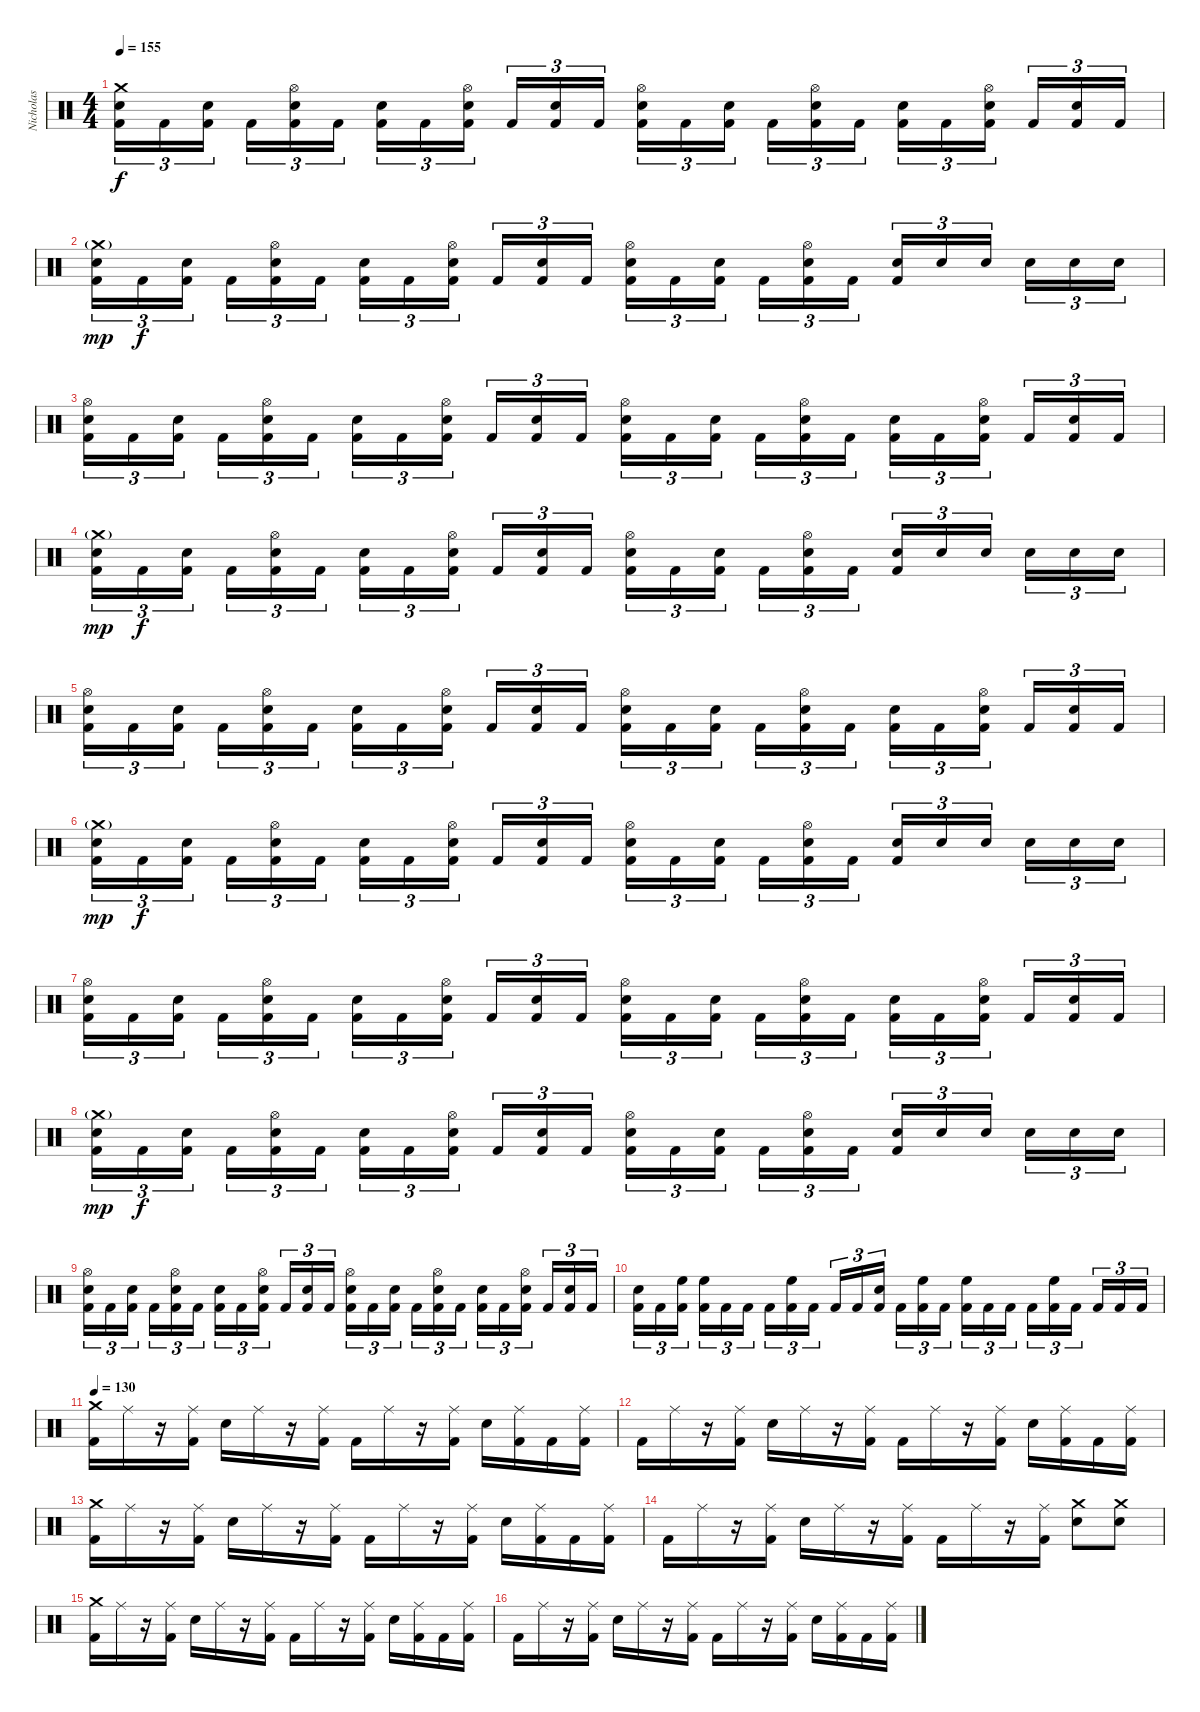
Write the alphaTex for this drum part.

\track ("Nicholas" "Nicholas") {instrument percussion}
\staff {score}
\articulation defaults
\ts (4 4)
\tempo 155
\clef neutral
\ks c
("Crash medium (hit)" "Snare (hit) 2" "Kick (hit) 2").16{tu (3 2) dy f} "Kick (hit) 2".16{tu (3 2)} ("Snare (hit) 2" "Kick (hit) 2").16{tu (3 2) beam splitsecondary} "Kick (hit) 2".16{tu (3 2)} ("Hi-Hat (open)" "Snare (hit) 2" "Kick (hit) 2").16{tu (3 2)} "Kick (hit) 2".16{tu (3 2)} ("Snare (hit) 2" "Kick (hit) 2").16{tu (3 2)} "Kick (hit) 2".16{tu (3 2)} ("Hi-Hat (open)" "Snare (hit) 2" "Kick (hit) 2").16{tu (3 2) beam splitsecondary} "Kick (hit) 2".16{tu (3 2)} ("Snare (hit) 2" "Kick (hit) 2").16{tu (3 2)} "Kick (hit) 2".16{tu (3 2)} ("Hi-Hat (open)" "Snare (hit) 2" "Kick (hit) 2").16{tu (3 2)} "Kick (hit) 2".16{tu (3 2)} ("Snare (hit) 2" "Kick (hit) 2").16{tu (3 2) beam splitsecondary} "Kick (hit) 2".16{tu (3 2)} ("Hi-Hat (open)" "Snare (hit) 2" "Kick (hit) 2").16{tu (3 2)} "Kick (hit) 2".16{tu (3 2)} ("Snare (hit) 2" "Kick (hit) 2").16{tu (3 2)} "Kick (hit) 2".16{tu (3 2)} ("Hi-Hat (open)" "Snare (hit) 2" "Kick (hit) 2").16{tu (3 2) beam splitsecondary} "Kick (hit) 2".16{tu (3 2)} ("Snare (hit) 2" "Kick (hit) 2").16{tu (3 2)} "Kick (hit) 2".16{tu (3 2)} |
("Crash medium (hit)"{g} "Snare (hit) 2" "Kick (hit) 2").16{tu (3 2) dy mp} "Kick (hit) 2".16{tu (3 2) dy f} ("Snare (hit) 2" "Kick (hit) 2").16{tu (3 2) beam splitsecondary} "Kick (hit) 2".16{tu (3 2)} ("Hi-Hat (open)" "Snare (hit) 2" "Kick (hit) 2").16{tu (3 2)} "Kick (hit) 2".16{tu (3 2)} ("Snare (hit) 2" "Kick (hit) 2").16{tu (3 2)} "Kick (hit) 2".16{tu (3 2)} ("Hi-Hat (open)" "Snare (hit) 2" "Kick (hit) 2").16{tu (3 2) beam splitsecondary} "Kick (hit) 2".16{tu (3 2)} ("Snare (hit) 2" "Kick (hit) 2").16{tu (3 2)} "Kick (hit) 2".16{tu (3 2)} ("Hi-Hat (open)" "Snare (hit) 2" "Kick (hit) 2").16{tu (3 2)} "Kick (hit) 2".16{tu (3 2)} ("Snare (hit) 2" "Kick (hit) 2").16{tu (3 2) beam splitsecondary} "Kick (hit) 2".16{tu (3 2)} ("Hi-Hat (open)" "Snare (hit) 2" "Kick (hit) 2").16{tu (3 2)} "Kick (hit) 2".16{tu (3 2)} ("Snare (hit) 2" "Kick (hit) 2").16{tu (3 2)} "Snare (hit) 2".16{tu (3 2)} "Snare (hit) 2".16{tu (3 2) beam splitsecondary} "Snare (hit) 2".16{tu (3 2)} "Snare (hit) 2".16{tu (3 2)} "Snare (hit) 2".16{tu (3 2)} |
("Hi-Hat (open)" "Snare (hit) 2" "Kick (hit) 2").16{tu (3 2)} "Kick (hit) 2".16{tu (3 2)} ("Snare (hit) 2" "Kick (hit) 2").16{tu (3 2) beam splitsecondary} "Kick (hit) 2".16{tu (3 2)} ("Hi-Hat (open)" "Snare (hit) 2" "Kick (hit) 2").16{tu (3 2)} "Kick (hit) 2".16{tu (3 2)} ("Snare (hit) 2" "Kick (hit) 2").16{tu (3 2)} "Kick (hit) 2".16{tu (3 2)} ("Hi-Hat (open)" "Snare (hit) 2" "Kick (hit) 2").16{tu (3 2) beam splitsecondary} "Kick (hit) 2".16{tu (3 2)} ("Snare (hit) 2" "Kick (hit) 2").16{tu (3 2)} "Kick (hit) 2".16{tu (3 2)} ("Hi-Hat (open)" "Snare (hit) 2" "Kick (hit) 2").16{tu (3 2)} "Kick (hit) 2".16{tu (3 2)} ("Snare (hit) 2" "Kick (hit) 2").16{tu (3 2) beam splitsecondary} "Kick (hit) 2".16{tu (3 2)} ("Hi-Hat (open)" "Snare (hit) 2" "Kick (hit) 2").16{tu (3 2)} "Kick (hit) 2".16{tu (3 2)} ("Snare (hit) 2" "Kick (hit) 2").16{tu (3 2)} "Kick (hit) 2".16{tu (3 2)} ("Hi-Hat (open)" "Snare (hit) 2" "Kick (hit) 2").16{tu (3 2) beam splitsecondary} "Kick (hit) 2".16{tu (3 2)} ("Snare (hit) 2" "Kick (hit) 2").16{tu (3 2)} "Kick (hit) 2".16{tu (3 2)} |
("Crash medium (hit)"{g} "Snare (hit) 2" "Kick (hit) 2").16{tu (3 2) dy mp} "Kick (hit) 2".16{tu (3 2) dy f} ("Snare (hit) 2" "Kick (hit) 2").16{tu (3 2) beam splitsecondary} "Kick (hit) 2".16{tu (3 2)} ("Hi-Hat (open)" "Snare (hit) 2" "Kick (hit) 2").16{tu (3 2)} "Kick (hit) 2".16{tu (3 2)} ("Snare (hit) 2" "Kick (hit) 2").16{tu (3 2)} "Kick (hit) 2".16{tu (3 2)} ("Hi-Hat (open)" "Snare (hit) 2" "Kick (hit) 2").16{tu (3 2) beam splitsecondary} "Kick (hit) 2".16{tu (3 2)} ("Snare (hit) 2" "Kick (hit) 2").16{tu (3 2)} "Kick (hit) 2".16{tu (3 2)} ("Hi-Hat (open)" "Snare (hit) 2" "Kick (hit) 2").16{tu (3 2)} "Kick (hit) 2".16{tu (3 2)} ("Snare (hit) 2" "Kick (hit) 2").16{tu (3 2) beam splitsecondary} "Kick (hit) 2".16{tu (3 2)} ("Hi-Hat (open)" "Snare (hit) 2" "Kick (hit) 2").16{tu (3 2)} "Kick (hit) 2".16{tu (3 2)} ("Snare (hit) 2" "Kick (hit) 2").16{tu (3 2)} "Snare (hit) 2".16{tu (3 2)} "Snare (hit) 2".16{tu (3 2) beam splitsecondary} "Snare (hit) 2".16{tu (3 2)} "Snare (hit) 2".16{tu (3 2)} "Snare (hit) 2".16{tu (3 2)} |
("Hi-Hat (open)" "Snare (hit) 2" "Kick (hit) 2").16{tu (3 2)} "Kick (hit) 2".16{tu (3 2)} ("Snare (hit) 2" "Kick (hit) 2").16{tu (3 2) beam splitsecondary} "Kick (hit) 2".16{tu (3 2)} ("Hi-Hat (open)" "Snare (hit) 2" "Kick (hit) 2").16{tu (3 2)} "Kick (hit) 2".16{tu (3 2)} ("Snare (hit) 2" "Kick (hit) 2").16{tu (3 2)} "Kick (hit) 2".16{tu (3 2)} ("Hi-Hat (open)" "Snare (hit) 2" "Kick (hit) 2").16{tu (3 2) beam splitsecondary} "Kick (hit) 2".16{tu (3 2)} ("Snare (hit) 2" "Kick (hit) 2").16{tu (3 2)} "Kick (hit) 2".16{tu (3 2)} ("Hi-Hat (open)" "Snare (hit) 2" "Kick (hit) 2").16{tu (3 2)} "Kick (hit) 2".16{tu (3 2)} ("Snare (hit) 2" "Kick (hit) 2").16{tu (3 2) beam splitsecondary} "Kick (hit) 2".16{tu (3 2)} ("Hi-Hat (open)" "Snare (hit) 2" "Kick (hit) 2").16{tu (3 2)} "Kick (hit) 2".16{tu (3 2)} ("Snare (hit) 2" "Kick (hit) 2").16{tu (3 2)} "Kick (hit) 2".16{tu (3 2)} ("Hi-Hat (open)" "Snare (hit) 2" "Kick (hit) 2").16{tu (3 2) beam splitsecondary} "Kick (hit) 2".16{tu (3 2)} ("Snare (hit) 2" "Kick (hit) 2").16{tu (3 2)} "Kick (hit) 2".16{tu (3 2)} |
("Crash medium (hit)"{g} "Snare (hit) 2" "Kick (hit) 2").16{tu (3 2) dy mp} "Kick (hit) 2".16{tu (3 2) dy f} ("Snare (hit) 2" "Kick (hit) 2").16{tu (3 2) beam splitsecondary} "Kick (hit) 2".16{tu (3 2)} ("Hi-Hat (open)" "Snare (hit) 2" "Kick (hit) 2").16{tu (3 2)} "Kick (hit) 2".16{tu (3 2)} ("Snare (hit) 2" "Kick (hit) 2").16{tu (3 2)} "Kick (hit) 2".16{tu (3 2)} ("Hi-Hat (open)" "Snare (hit) 2" "Kick (hit) 2").16{tu (3 2) beam splitsecondary} "Kick (hit) 2".16{tu (3 2)} ("Snare (hit) 2" "Kick (hit) 2").16{tu (3 2)} "Kick (hit) 2".16{tu (3 2)} ("Hi-Hat (open)" "Snare (hit) 2" "Kick (hit) 2").16{tu (3 2)} "Kick (hit) 2".16{tu (3 2)} ("Snare (hit) 2" "Kick (hit) 2").16{tu (3 2) beam splitsecondary} "Kick (hit) 2".16{tu (3 2)} ("Hi-Hat (open)" "Snare (hit) 2" "Kick (hit) 2").16{tu (3 2)} "Kick (hit) 2".16{tu (3 2)} ("Snare (hit) 2" "Kick (hit) 2").16{tu (3 2)} "Snare (hit) 2".16{tu (3 2)} "Snare (hit) 2".16{tu (3 2) beam splitsecondary} "Snare (hit) 2".16{tu (3 2)} "Snare (hit) 2".16{tu (3 2)} "Snare (hit) 2".16{tu (3 2)} |
("Hi-Hat (open)" "Snare (hit) 2" "Kick (hit) 2").16{tu (3 2)} "Kick (hit) 2".16{tu (3 2)} ("Snare (hit) 2" "Kick (hit) 2").16{tu (3 2) beam splitsecondary} "Kick (hit) 2".16{tu (3 2)} ("Hi-Hat (open)" "Snare (hit) 2" "Kick (hit) 2").16{tu (3 2)} "Kick (hit) 2".16{tu (3 2)} ("Snare (hit) 2" "Kick (hit) 2").16{tu (3 2)} "Kick (hit) 2".16{tu (3 2)} ("Hi-Hat (open)" "Snare (hit) 2" "Kick (hit) 2").16{tu (3 2) beam splitsecondary} "Kick (hit) 2".16{tu (3 2)} ("Snare (hit) 2" "Kick (hit) 2").16{tu (3 2)} "Kick (hit) 2".16{tu (3 2)} ("Hi-Hat (open)" "Snare (hit) 2" "Kick (hit) 2").16{tu (3 2)} "Kick (hit) 2".16{tu (3 2)} ("Snare (hit) 2" "Kick (hit) 2").16{tu (3 2) beam splitsecondary} "Kick (hit) 2".16{tu (3 2)} ("Hi-Hat (open)" "Snare (hit) 2" "Kick (hit) 2").16{tu (3 2)} "Kick (hit) 2".16{tu (3 2)} ("Snare (hit) 2" "Kick (hit) 2").16{tu (3 2)} "Kick (hit) 2".16{tu (3 2)} ("Hi-Hat (open)" "Snare (hit) 2" "Kick (hit) 2").16{tu (3 2) beam splitsecondary} "Kick (hit) 2".16{tu (3 2)} ("Snare (hit) 2" "Kick (hit) 2").16{tu (3 2)} "Kick (hit) 2".16{tu (3 2)} |
("Crash medium (hit)"{g} "Snare (hit) 2" "Kick (hit) 2").16{tu (3 2) dy mp} "Kick (hit) 2".16{tu (3 2) dy f} ("Snare (hit) 2" "Kick (hit) 2").16{tu (3 2) beam splitsecondary} "Kick (hit) 2".16{tu (3 2)} ("Hi-Hat (open)" "Snare (hit) 2" "Kick (hit) 2").16{tu (3 2)} "Kick (hit) 2".16{tu (3 2)} ("Snare (hit) 2" "Kick (hit) 2").16{tu (3 2)} "Kick (hit) 2".16{tu (3 2)} ("Hi-Hat (open)" "Snare (hit) 2" "Kick (hit) 2").16{tu (3 2) beam splitsecondary} "Kick (hit) 2".16{tu (3 2)} ("Snare (hit) 2" "Kick (hit) 2").16{tu (3 2)} "Kick (hit) 2".16{tu (3 2)} ("Hi-Hat (open)" "Snare (hit) 2" "Kick (hit) 2").16{tu (3 2)} "Kick (hit) 2".16{tu (3 2)} ("Snare (hit) 2" "Kick (hit) 2").16{tu (3 2) beam splitsecondary} "Kick (hit) 2".16{tu (3 2)} ("Hi-Hat (open)" "Snare (hit) 2" "Kick (hit) 2").16{tu (3 2)} "Kick (hit) 2".16{tu (3 2)} ("Snare (hit) 2" "Kick (hit) 2").16{tu (3 2)} "Snare (hit) 2".16{tu (3 2)} "Snare (hit) 2".16{tu (3 2) beam splitsecondary} "Snare (hit) 2".16{tu (3 2)} "Snare (hit) 2".16{tu (3 2)} "Snare (hit) 2".16{tu (3 2)} |
("Hi-Hat (open)" "Snare (hit) 2" "Kick (hit) 2").16{tu (3 2)} "Kick (hit) 2".16{tu (3 2)} ("Snare (hit) 2" "Kick (hit) 2").16{tu (3 2) beam splitsecondary} "Kick (hit) 2".16{tu (3 2)} ("Hi-Hat (open)" "Snare (hit) 2" "Kick (hit) 2").16{tu (3 2)} "Kick (hit) 2".16{tu (3 2)} ("Snare (hit) 2" "Kick (hit) 2").16{tu (3 2)} "Kick (hit) 2".16{tu (3 2)} ("Hi-Hat (open)" "Snare (hit) 2" "Kick (hit) 2").16{tu (3 2) beam splitsecondary} "Kick (hit) 2".16{tu (3 2)} ("Snare (hit) 2" "Kick (hit) 2").16{tu (3 2)} "Kick (hit) 2".16{tu (3 2)} ("Hi-Hat (open)" "Snare (hit) 2" "Kick (hit) 2").16{tu (3 2)} "Kick (hit) 2".16{tu (3 2)} ("Snare (hit) 2" "Kick (hit) 2").16{tu (3 2) beam splitsecondary} "Kick (hit) 2".16{tu (3 2)} ("Hi-Hat (open)" "Snare (hit) 2" "Kick (hit) 2").16{tu (3 2)} "Kick (hit) 2".16{tu (3 2)} ("Snare (hit) 2" "Kick (hit) 2").16{tu (3 2)} "Kick (hit) 2".16{tu (3 2)} ("Hi-Hat (open)" "Snare (hit) 2" "Kick (hit) 2").16{tu (3 2) beam splitsecondary} "Kick (hit) 2".16{tu (3 2)} ("Snare (hit) 2" "Kick (hit) 2").16{tu (3 2)} "Kick (hit) 2".16{tu (3 2)} |
("Snare (hit) 2" "Kick (hit) 2").16{tu (3 2)} "Kick (hit) 2".16{tu (3 2)} ("High Floor Tom (hit)" "Kick (hit) 2").16{tu (3 2) beam splitsecondary} ("High Floor Tom (hit)" "Kick (hit) 2").16{tu (3 2)} "Kick (hit) 2".16{tu (3 2)} "Kick (hit) 2".16{tu (3 2)} "Kick (hit) 2".16{tu (3 2)} ("High Floor Tom (hit)" "Kick (hit) 2").16{tu (3 2)} "Kick (hit) 2".16{tu (3 2) beam splitsecondary} "Kick (hit) 2".16{tu (3 2)} "Kick (hit) 2".16{tu (3 2)} ("Snare (hit) 2" "Kick (hit) 2").16{tu (3 2)} "Kick (hit) 2".16{tu (3 2)} ("High Floor Tom (hit)" "Kick (hit) 2").16{tu (3 2)} "Kick (hit) 2".16{tu (3 2) beam splitsecondary} ("High Floor Tom (hit)" "Kick (hit) 2").16{tu (3 2)} "Kick (hit) 2".16{tu (3 2)} "Kick (hit) 2".16{tu (3 2)} "Kick (hit) 2".16{tu (3 2)} ("High Floor Tom (hit)" "Kick (hit) 2").16{tu (3 2)} "Kick (hit) 2".16{tu (3 2) beam splitsecondary} "Kick (hit) 2".16{tu (3 2)} "Kick (hit) 2".16{tu (3 2)} "Kick (hit) 2".16{tu (3 2)} |
\tempo 130
("Crash medium (hit)" "Kick (hit) 2").16 "Ride (middle)".16 r.16 ("Ride (middle)" "Kick (hit) 2").16 "Snare (hit) 2".16 "Ride (middle)".16 r.16 ("Ride (middle)" "Kick (hit) 2").16 "Kick (hit) 2".16 "Ride (middle)".16 r.16 ("Ride (middle)" "Kick (hit) 2").16 "Snare (hit) 2".16 ("Ride (middle)" "Kick (hit) 2").16 "Kick (hit) 2".16 ("Ride (middle)" "Kick (hit) 2").16 |
"Kick (hit) 2".16 "Ride (middle)".16 r.16 ("Ride (middle)" "Kick (hit) 2").16 "Snare (hit) 2".16 "Ride (middle)".16 r.16 ("Ride (middle)" "Kick (hit) 2").16 "Kick (hit) 2".16 "Ride (middle)".16 r.16 ("Ride (middle)" "Kick (hit) 2").16 "Snare (hit) 2".16 ("Ride (middle)" "Kick (hit) 2").16 "Kick (hit) 2".16 ("Ride (middle)" "Kick (hit) 2").16 |
("Crash medium (hit)" "Kick (hit) 2").16 "Ride (middle)".16 r.16 ("Ride (middle)" "Kick (hit) 2").16 "Snare (hit) 2".16 "Ride (middle)".16 r.16 ("Ride (middle)" "Kick (hit) 2").16 "Kick (hit) 2".16 "Ride (middle)".16 r.16 ("Ride (middle)" "Kick (hit) 2").16 "Snare (hit) 2".16 ("Ride (middle)" "Kick (hit) 2").16 "Kick (hit) 2".16 ("Ride (middle)" "Kick (hit) 2").16 |
"Kick (hit) 2".16 "Ride (middle)".16 r.16 ("Ride (middle)" "Kick (hit) 2").16 "Snare (hit) 2".16 "Ride (middle)".16 r.16 ("Ride (middle)" "Kick (hit) 2").16 "Kick (hit) 2".16 "Ride (middle)".16 r.16 ("Ride (middle)" "Kick (hit) 2").16 ("Crash medium (hit)" "Snare (hit) 2").8 ("Crash medium (hit)" "Snare (hit) 2").8 |
("Crash medium (hit)" "Kick (hit) 2").16 "Ride (middle)".16 r.16 ("Ride (middle)" "Kick (hit) 2").16 "Snare (hit) 2".16 "Ride (middle)".16 r.16 ("Ride (middle)" "Kick (hit) 2").16 "Kick (hit) 2".16 "Ride (middle)".16 r.16 ("Ride (middle)" "Kick (hit) 2").16 "Snare (hit) 2".16 ("Ride (middle)" "Kick (hit) 2").16 "Kick (hit) 2".16 ("Ride (middle)" "Kick (hit) 2").16 |
"Kick (hit) 2".16 "Ride (middle)".16 r.16 ("Ride (middle)" "Kick (hit) 2").16 "Snare (hit) 2".16 "Ride (middle)".16 r.16 ("Ride (middle)" "Kick (hit) 2").16 "Kick (hit) 2".16 "Ride (middle)".16 r.16 ("Ride (middle)" "Kick (hit) 2").16 "Snare (hit) 2".16 ("Ride (middle)" "Kick (hit) 2").16 "Kick (hit) 2".16 ("Ride (middle)" "Kick (hit) 2").16
